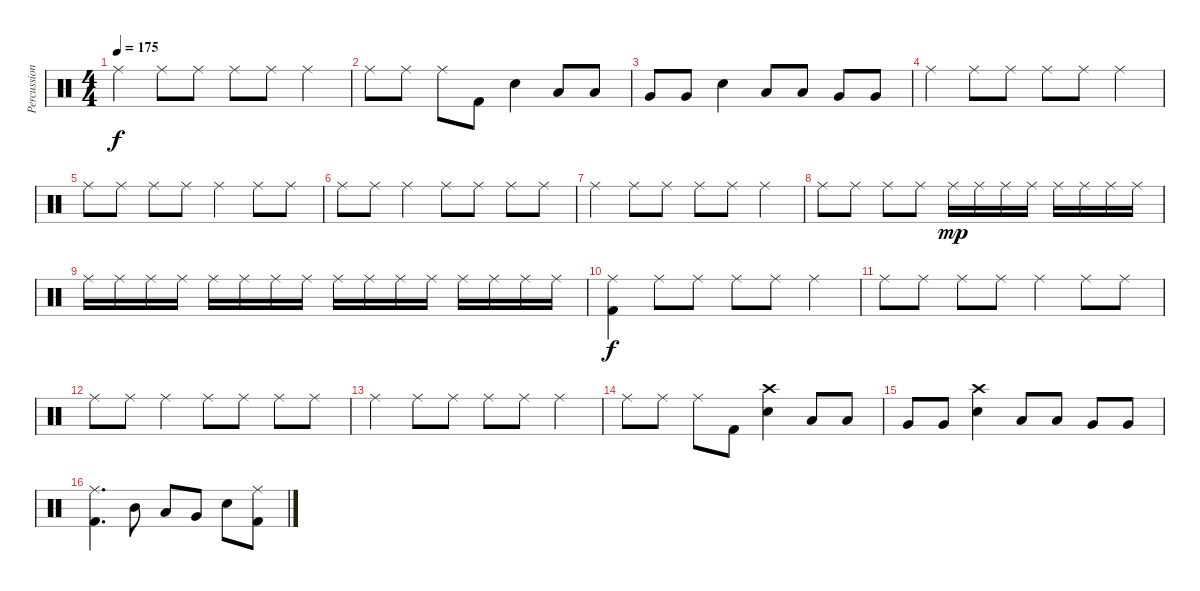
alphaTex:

\track ("Percussion" "Percussion") {instrument percussion}
\staff {score}
\articulation defaults
\ts (4 4)
\tempo 175
\clef neutral
\ks c "Ride (middle)".4{dy f} "Ride (middle)".8 "Ride (middle)".8 "Ride (middle)".8 "Ride (middle)".8 "Ride (middle)".4
|
"Ride (middle)".8 "Ride (middle)".8 "Ride (middle)".8 "Kick (hit) 2".8 "Electric Snare (hit)".4 "Low Tom (hit)".8 "Low Tom (hit)".8 |
"Very Low Tom (hit)".8 "Very Low Tom (hit)".8 "Electric Snare (hit)".4 "Low Tom (hit)".8 "Low Tom (hit)".8 "Very Low Tom (hit)".8 "Very Low Tom (hit)".8 |
"Ride (middle)".4 "Ride (middle)".8 "Ride (middle)".8 "Ride (middle)".8 "Ride (middle)".8 "Ride (middle)".4 |
"Ride (middle)".8 "Ride (middle)".8 "Ride (middle)".8 "Ride (middle)".8 "Ride (middle)".4 "Ride (middle)".8 "Ride (middle)".8 |
"Ride (middle)".8 "Ride (middle)".8 "Ride (middle)".4 "Ride (middle)".8 "Ride (middle)".8 "Ride (middle)".8 "Ride (middle)".8 |
"Ride (middle)".4 "Ride (middle)".8 "Ride (middle)".8 "Ride (middle)".8 "Ride (middle)".8 "Ride (middle)".4 |
"Ride (middle)".8 "Ride (middle)".8 "Ride (middle)".8 "Ride (middle)".8 "Ride (middle)".16{dy mp} "Ride (middle)".16 "Ride (middle)".16 "Ride (middle)".16 "Ride (middle)".16 "Ride (middle)".16 "Ride (middle)".16 "Ride (middle)".16 |
"Ride (middle)".16 "Ride (middle)".16 "Ride (middle)".16 "Ride (middle)".16 "Ride (middle)".16 "Ride (middle)".16 "Ride (middle)".16 "Ride (middle)".16 "Ride (middle)".16 "Ride (middle)".16 "Ride (middle)".16 "Ride (middle)".16 "Ride (middle)".16 "Ride (middle)".16 "Ride (middle)".16 "Ride (middle)".16 |
("Ride (middle)" "Kick (hit) 2").4{dy f} "Ride (middle)".8 "Ride (middle)".8 "Ride (middle)".8 "Ride (middle)".8 "Ride (middle)".4 |
"Ride (middle)".8 "Ride (middle)".8 "Ride (middle)".8 "Ride (middle)".8 "Ride (middle)".4 "Ride (middle)".8 "Ride (middle)".8 |
"Ride (middle)".8 "Ride (middle)".8 "Ride (middle)".4 "Ride (middle)".8 "Ride (middle)".8 "Ride (middle)".8 "Ride (middle)".8 |
"Ride (middle)".4 "Ride (middle)".8 "Ride (middle)".8 "Ride (middle)".8 "Ride (middle)".8 "Ride (middle)".4 |
"Ride (middle)".8 "Ride (middle)".8 "Ride (middle)".8 "Kick (hit) 2".8 ("Crash high (hit)" "Electric Snare (hit)").4 "Low Tom (hit)".8 "Low Tom (hit)".8 |
"Very Low Tom (hit)".8 "Very Low Tom (hit)".8 ("Crash high (hit)" "Electric Snare (hit)").4 "Low Tom (hit)".8 "Low Tom (hit)".8 "Very Low Tom (hit)".8 "Very Low Tom (hit)".8 |
("Ride (middle)" "Kick (hit) 2").4{d} "Mid Tom (hit)".8 "Low Tom (hit)".8 "Very Low Tom (hit)".8 "Electric Snare (hit)".8 ("Ride (middle)" "Kick (hit) 2").8
